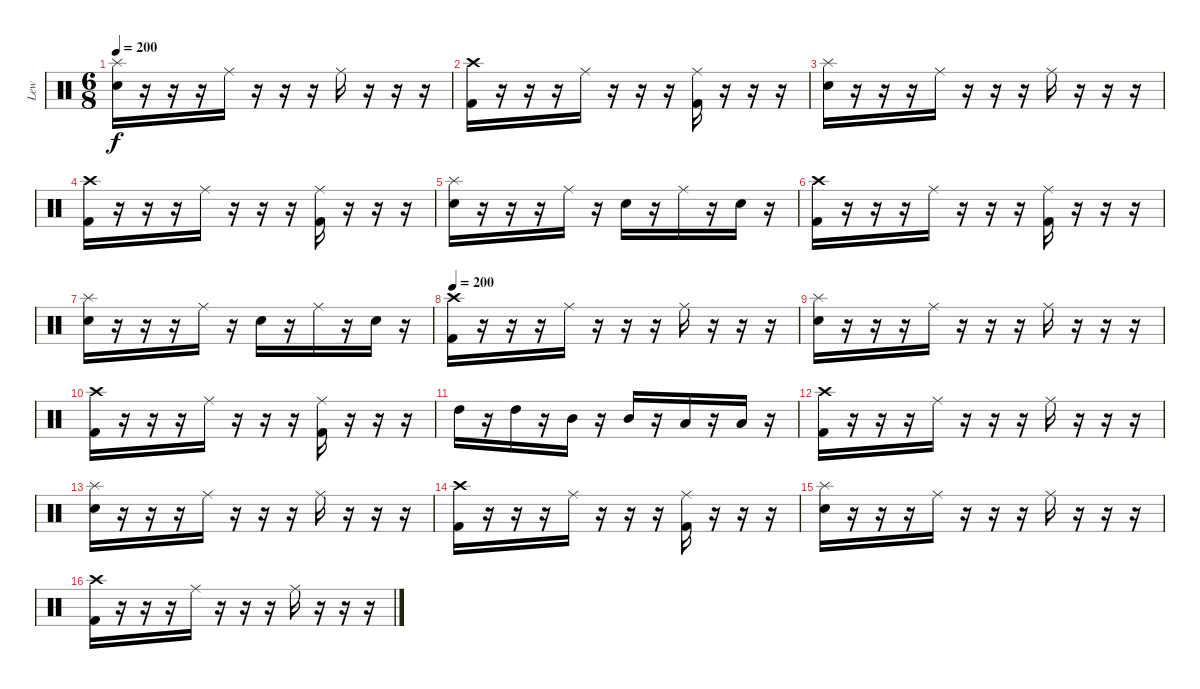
\track ("Lew" "Lew") {instrument percussion}
\staff {score}
\articulation defaults
\ts (6 8)
\tempo 200
\clef neutral
\ks c
("Splash (hit)" "Electric Snare (hit)").16{dy f} r.16 r.16 r.16 "Ride (middle)".16 r.16 r.16 r.16 "Ride (middle)".16 r.16 r.16 r.16 |
("Crash high (hit)" "Kick (hit) 2").16 r.16 r.16 r.16 "Ride (middle)".16 r.16 r.16 r.16 ("Ride (middle)" "Kick (hit) 2").16 r.16 r.16 r.16 |
("Splash (hit)" "Electric Snare (hit)").16 r.16 r.16 r.16 "Ride (middle)".16 r.16 r.16 r.16 "Ride (middle)".16 r.16 r.16 r.16 |
("Crash high (hit)" "Kick (hit) 2").16 r.16 r.16 r.16 "Ride (middle)".16 r.16 r.16 r.16 ("Ride (middle)" "Kick (hit) 2").16 r.16 r.16 r.16 |
("Splash (hit)" "Electric Snare (hit)").16 r.16 r.16 r.16 "Ride (middle)".16 r.16 "Electric Snare (hit)".16 r.16 "Ride (middle)".16 r.16 "Electric Snare (hit)".16 r.16 |
("Crash high (hit)" "Kick (hit) 2").16 r.16 r.16 r.16 "Ride (middle)".16 r.16 r.16 r.16 ("Ride (middle)" "Kick (hit) 2").16 r.16 r.16 r.16 |
("Splash (hit)" "Electric Snare (hit)").16 r.16 r.16 r.16 "Ride (middle)".16 r.16 "Electric Snare (hit)".16 r.16 "Ride (middle)".16 r.16 "Electric Snare (hit)".16 r.16 |
\tempo 200
("Crash high (hit)" "Kick (hit) 2").16 r.16 r.16 r.16 "Ride (middle)".16 r.16 r.16 r.16 "Ride (middle)".16 r.16 r.16 r.16 |
("Splash (hit)" "Electric Snare (hit)").16 r.16 r.16 r.16 "Ride (middle)".16 r.16 r.16 r.16 "Ride (middle)".16 r.16 r.16 r.16 |
("Crash high (hit)" "Kick (hit) 2").16 r.16 r.16 r.16 "Ride (middle)".16 r.16 r.16 r.16 ("Ride (middle)" "Kick (hit) 2").16 r.16 r.16 r.16 |
"High Tom (hit)".16 r.16 "High Tom (hit)".16 r.16 "Mid Tom (hit)".16 r.16 "Mid Tom (hit)".16 r.16 "Low Tom (hit)".16 r.16 "Low Tom (hit)".16 r.16 |
("Crash high (hit)" "Kick (hit) 2").16 r.16 r.16 r.16 "Ride (middle)".16 r.16 r.16 r.16 "Ride (middle)".16 r.16 r.16 r.16 |
("Splash (hit)" "Electric Snare (hit)").16 r.16 r.16 r.16 "Ride (middle)".16 r.16 r.16 r.16 "Ride (middle)".16 r.16 r.16 r.16 |
("Crash high (hit)" "Kick (hit) 2").16 r.16 r.16 r.16 "Ride (middle)".16 r.16 r.16 r.16 ("Ride (middle)" "Kick (hit) 2").16 r.16 r.16 r.16 |
("Splash (hit)" "Electric Snare (hit)").16 r.16 r.16 r.16 "Ride (middle)".16 r.16 r.16 r.16 "Ride (middle)".16 r.16 r.16 r.16 |
("Crash high (hit)" "Kick (hit) 2").16 r.16 r.16 r.16 "Ride (middle)".16 r.16 r.16 r.16 "Ride (middle)".16 r.16 r.16 r.16
